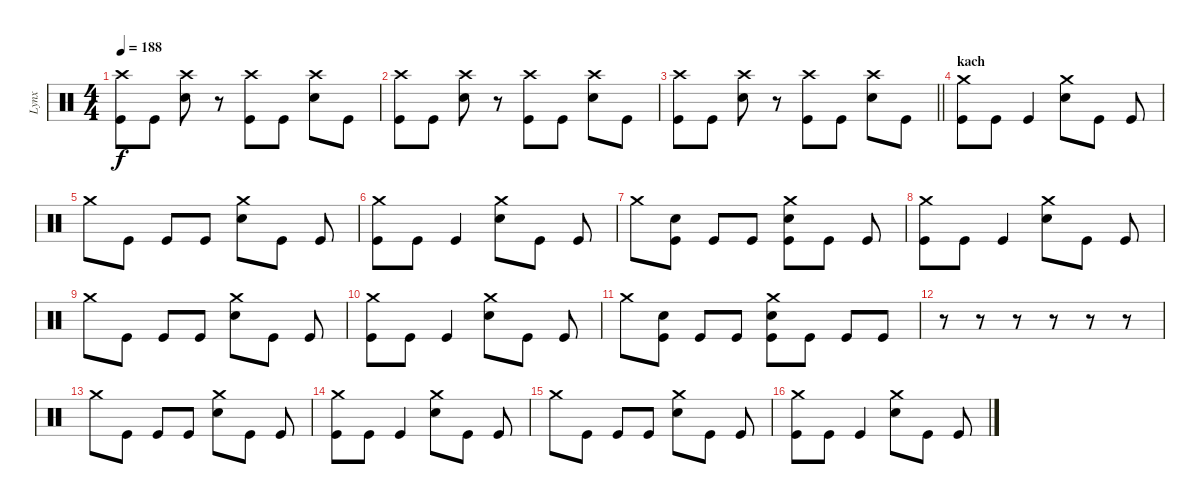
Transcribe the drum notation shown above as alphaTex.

\track ("Lynx" "Lynx") {instrument percussion}
\staff {score}
\articulation defaults
\ts (4 4)
\tempo 188
\clef neutral
\ks c
("Crash high (hit)" "Kick (hit)").8{dy f} "Kick (hit)".8 ("Crash high (hit)" "Electric Snare (hit)").8 r.8 ("Crash high (hit)" "Kick (hit)").8 "Kick (hit)".8 ("Crash high (hit)" "Electric Snare (hit)").8 "Kick (hit)".8 |
("Crash high (hit)" "Kick (hit)").8 "Kick (hit)".8 ("Crash high (hit)" "Electric Snare (hit)").8 r.8 ("Crash high (hit)" "Kick (hit)").8 "Kick (hit)".8 ("Crash high (hit)" "Electric Snare (hit)").8 "Kick (hit)".8 |
\barLineRight lightlight
("Crash high (hit)" "Kick (hit)").8 "Kick (hit)".8 ("Crash high (hit)" "Electric Snare (hit)").8 r.8 ("Crash high (hit)" "Kick (hit)").8 "Kick (hit)".8 ("Crash high (hit)" "Electric Snare (hit)").8 "Kick (hit)".8 |
\section ("" "kach")
("Kick (hit)" "Crash medium (hit)").8 "Kick (hit)".8 "Kick (hit)".4 ("Electric Snare (hit)" "Crash medium (hit)").8 "Kick (hit)".8 "Kick (hit)".8 |
"Crash medium (hit)".8 "Kick (hit)".8 "Kick (hit)".8 "Kick (hit)".8 ("Electric Snare (hit)" "Crash medium (hit)").8 "Kick (hit)".8 "Kick (hit)".8 |
("Kick (hit)" "Crash medium (hit)").8 "Kick (hit)".8 "Kick (hit)".4 ("Electric Snare (hit)" "Crash medium (hit)").8 "Kick (hit)".8 "Kick (hit)".8 |
"Crash medium (hit)".8 ("Kick (hit)" "Electric Snare (hit)").8 "Kick (hit)".8 "Kick (hit)".8 ("Kick (hit)" "Crash medium (hit)" "Electric Snare (hit)").8 "Kick (hit)".8 "Kick (hit)".8 |
("Kick (hit)" "Crash medium (hit)").8 "Kick (hit)".8 "Kick (hit)".4 ("Electric Snare (hit)" "Crash medium (hit)").8 "Kick (hit)".8 "Kick (hit)".8 |
"Crash medium (hit)".8 "Kick (hit)".8 "Kick (hit)".8 "Kick (hit)".8 ("Electric Snare (hit)" "Crash medium (hit)").8 "Kick (hit)".8 "Kick (hit)".8 |
("Kick (hit)" "Crash medium (hit)").8 "Kick (hit)".8 "Kick (hit)".4 ("Electric Snare (hit)" "Crash medium (hit)").8 "Kick (hit)".8 "Kick (hit)".8 |
"Crash medium (hit)".8 ("Kick (hit)" "Electric Snare (hit)").8 "Kick (hit)".8 "Kick (hit)".8 ("Kick (hit)" "Crash medium (hit)" "Electric Snare (hit)").8 "Kick (hit)".8 "Kick (hit)".8 "Kick (hit)".8 |
r.8 r.8 r.8 r.8 r.8 r.8 |
"Crash medium (hit)".8 "Kick (hit)".8 "Kick (hit)".8 "Kick (hit)".8 ("Electric Snare (hit)" "Crash medium (hit)").8 "Kick (hit)".8 "Kick (hit)".8 |
("Kick (hit)" "Crash medium (hit)").8 "Kick (hit)".8 "Kick (hit)".4 ("Electric Snare (hit)" "Crash medium (hit)").8 "Kick (hit)".8 "Kick (hit)".8 |
"Crash medium (hit)".8 "Kick (hit)".8 "Kick (hit)".8 "Kick (hit)".8 ("Electric Snare (hit)" "Crash medium (hit)").8 "Kick (hit)".8 "Kick (hit)".8 |
("Kick (hit)" "Crash medium (hit)").8 "Kick (hit)".8 "Kick (hit)".4 ("Electric Snare (hit)" "Crash medium (hit)").8 "Kick (hit)".8 "Kick (hit)".8
